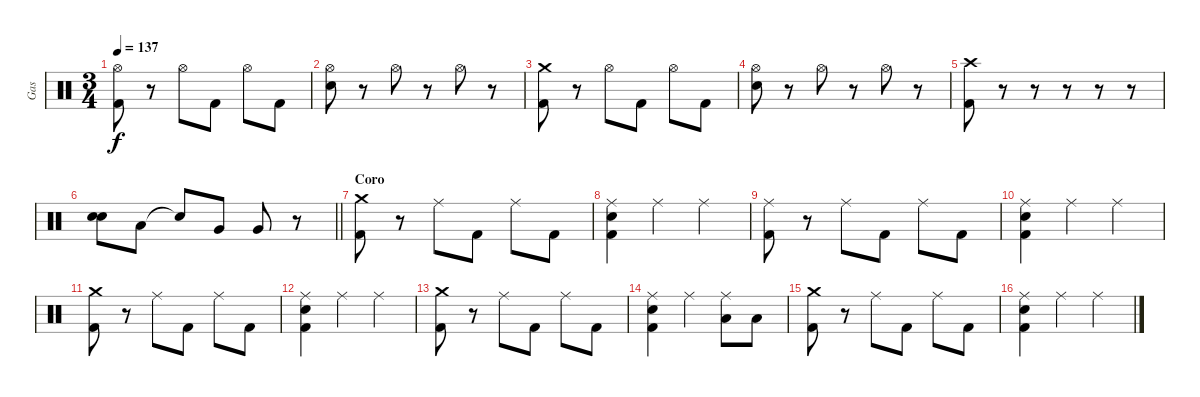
\track ("Gas" "Gas") {instrument percussion}
\staff {score}
\articulation defaults
\ts (3 4)
\tempo 137
\clef neutral
\ks c
("Hi-Hat (open)" "Kick (hit) 2").8{dy f} r.8 "Hi-Hat (open)".8 "Kick (hit) 2".8 "Hi-Hat (open)".8 "Kick (hit) 2".8 |
("Hi-Hat (open)" "Snare (hit) 2").8 r.8 "Hi-Hat (open)".8 r.8 "Hi-Hat (open)".8 r.8 |
("Crash medium (hit)" "Kick (hit) 2").8 r.8 "Hi-Hat (open)".8 "Kick (hit) 2".8 "Hi-Hat (open)".8 "Kick (hit) 2".8 |
("Hi-Hat (open)" "Snare (hit) 2").8 r.8 "Hi-Hat (open)".8 r.8 "Hi-Hat (open)".8 r.8 |
("Crash high (hit)" "Kick (hit) 2").8 r.8 r.8 r.8 r.8 r.8 |
\barLineRight lightlight
("Snare (hit) 2" "Snare (hit) 2").8{bd 60} "Low Tom (hit)".8 "Snare (hit)"{t}.8 "Very Low Tom (hit)".8 "Very Low Tom (hit)".8 r.8 |
\section ("" "Coro")
("Crash medium (hit)" "Kick (hit) 2").8 r.8 "Ride (middle)".8 "Kick (hit) 2".8 "Ride (middle)".8 "Kick (hit) 2".8 |
("Ride (middle)" "Snare (hit) 2" "Kick (hit) 2").4 "Ride (middle)".4 "Ride (middle)".4 |
("Ride (middle)" "Kick (hit) 2").8 r.8 "Ride (middle)".8 "Kick (hit) 2".8 "Ride (middle)".8 "Kick (hit) 2".8 |
("Ride (middle)" "Snare (hit) 2" "Kick (hit) 2").4 "Ride (middle)".4 "Ride (middle)".4 |
("Crash medium (hit)" "Kick (hit) 2").8 r.8 "Ride (middle)".8 "Kick (hit) 2".8 "Ride (middle)".8 "Kick (hit) 2".8 |
("Ride (middle)" "Snare (hit) 2" "Kick (hit) 2").4 "Ride (middle)".4 "Ride (middle)".4 |
("Crash medium (hit)" "Kick (hit) 2").8 r.8 "Ride (middle)".8 "Kick (hit) 2".8 "Ride (middle)".8 "Kick (hit) 2".8 |
("Ride (middle)" "Snare (hit) 2" "Kick (hit) 2").4 "Ride (middle)".4 ("Ride (middle)" "Low Tom (hit)").8 "Low Tom (hit)".8 |
("Crash medium (hit)" "Kick (hit) 2").8 r.8 "Ride (middle)".8 "Kick (hit) 2".8 "Ride (middle)".8 "Kick (hit) 2".8 |
("Ride (middle)" "Snare (hit) 2" "Kick (hit) 2").4 "Ride (middle)".4 "Ride (middle)".4
